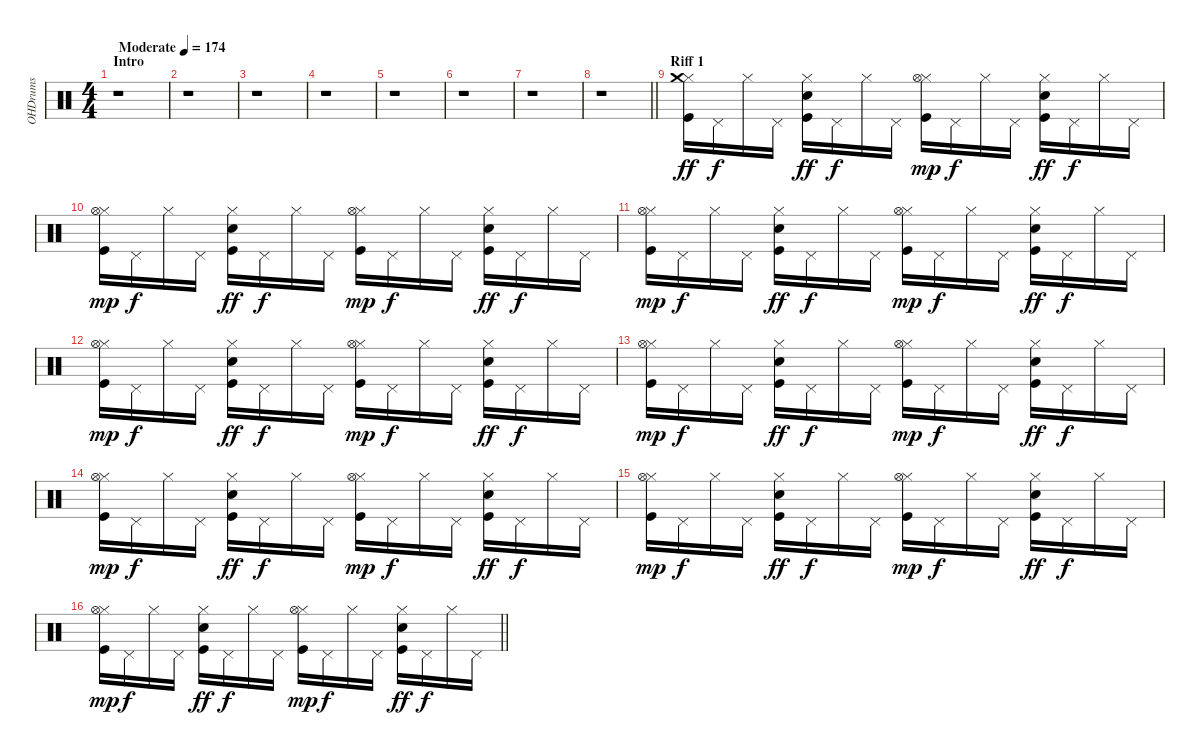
\track ("OHDrums" "OHDrums") {instrument percussion}
\staff {score}
\articulation defaults
\ts (4 4)
\section ("" "Intro")
\tempo (174 "Moderate")
\clef neutral
\ks c
r.1{dy ff} |
r.1 |
r.1 |
r.1 |
r.1 |
r.1 |
r.1 |
\barLineRight lightlight
r.1 |
\section ("" "Riff 1")
("Kick (hit)" "Hi-Hat (closed)" "Crash medium (hit)").16 "Pedal Hi-Hat (hit)".16{dy f} "Hi-Hat (closed)".16 "Pedal Hi-Hat (hit)".16 ("Kick (hit)" "Electric Snare (hit)" "Hi-Hat (closed)").16{dy ff} "Pedal Hi-Hat (hit)".16{dy f} "Hi-Hat (closed)".16 "Pedal Hi-Hat (hit)".16 ("Kick (hit)" "Hi-Hat (closed)" "Hi-Hat (open)").16{dy mp} "Pedal Hi-Hat (hit)".16{dy f} "Hi-Hat (closed)".16 "Pedal Hi-Hat (hit)".16 ("Kick (hit)" "Electric Snare (hit)" "Hi-Hat (closed)").16{dy ff} "Pedal Hi-Hat (hit)".16{dy f} "Hi-Hat (closed)".16 "Pedal Hi-Hat (hit)".16 |
("Kick (hit)" "Hi-Hat (closed)" "Hi-Hat (open)").16{dy mp} "Pedal Hi-Hat (hit)".16{dy f} "Hi-Hat (closed)".16 "Pedal Hi-Hat (hit)".16 ("Kick (hit)" "Electric Snare (hit)" "Hi-Hat (closed)").16{dy ff} "Pedal Hi-Hat (hit)".16{dy f} "Hi-Hat (closed)".16 "Pedal Hi-Hat (hit)".16 ("Kick (hit)" "Hi-Hat (closed)" "Hi-Hat (open)").16{dy mp} "Pedal Hi-Hat (hit)".16{dy f} "Hi-Hat (closed)".16 "Pedal Hi-Hat (hit)".16 ("Kick (hit)" "Electric Snare (hit)" "Hi-Hat (closed)").16{dy ff} "Pedal Hi-Hat (hit)".16{dy f} "Hi-Hat (closed)".16 "Pedal Hi-Hat (hit)".16 |
("Kick (hit)" "Hi-Hat (closed)" "Hi-Hat (open)").16{dy mp} "Pedal Hi-Hat (hit)".16{dy f} "Hi-Hat (closed)".16 "Pedal Hi-Hat (hit)".16 ("Kick (hit)" "Electric Snare (hit)" "Hi-Hat (closed)").16{dy ff} "Pedal Hi-Hat (hit)".16{dy f} "Hi-Hat (closed)".16 "Pedal Hi-Hat (hit)".16 ("Kick (hit)" "Hi-Hat (closed)" "Hi-Hat (open)").16{dy mp} "Pedal Hi-Hat (hit)".16{dy f} "Hi-Hat (closed)".16 "Pedal Hi-Hat (hit)".16 ("Kick (hit)" "Electric Snare (hit)" "Hi-Hat (closed)").16{dy ff} "Pedal Hi-Hat (hit)".16{dy f} "Hi-Hat (closed)".16 "Pedal Hi-Hat (hit)".16 |
("Kick (hit)" "Hi-Hat (closed)" "Hi-Hat (open)").16{dy mp} "Pedal Hi-Hat (hit)".16{dy f} "Hi-Hat (closed)".16 "Pedal Hi-Hat (hit)".16 ("Kick (hit)" "Electric Snare (hit)" "Hi-Hat (closed)").16{dy ff} "Pedal Hi-Hat (hit)".16{dy f} "Hi-Hat (closed)".16 "Pedal Hi-Hat (hit)".16 ("Kick (hit)" "Hi-Hat (closed)" "Hi-Hat (open)").16{dy mp} "Pedal Hi-Hat (hit)".16{dy f} "Hi-Hat (closed)".16 "Pedal Hi-Hat (hit)".16 ("Kick (hit)" "Electric Snare (hit)" "Hi-Hat (closed)").16{dy ff} "Pedal Hi-Hat (hit)".16{dy f} "Hi-Hat (closed)".16 "Pedal Hi-Hat (hit)".16 |
("Kick (hit)" "Hi-Hat (closed)" "Hi-Hat (open)").16{dy mp} "Pedal Hi-Hat (hit)".16{dy f} "Hi-Hat (closed)".16 "Pedal Hi-Hat (hit)".16 ("Kick (hit)" "Electric Snare (hit)" "Hi-Hat (closed)").16{dy ff} "Pedal Hi-Hat (hit)".16{dy f} "Hi-Hat (closed)".16 "Pedal Hi-Hat (hit)".16 ("Kick (hit)" "Hi-Hat (closed)" "Hi-Hat (open)").16{dy mp} "Pedal Hi-Hat (hit)".16{dy f} "Hi-Hat (closed)".16 "Pedal Hi-Hat (hit)".16 ("Kick (hit)" "Electric Snare (hit)" "Hi-Hat (closed)").16{dy ff} "Pedal Hi-Hat (hit)".16{dy f} "Hi-Hat (closed)".16 "Pedal Hi-Hat (hit)".16 |
("Kick (hit)" "Hi-Hat (closed)" "Hi-Hat (open)").16{dy mp} "Pedal Hi-Hat (hit)".16{dy f} "Hi-Hat (closed)".16 "Pedal Hi-Hat (hit)".16 ("Kick (hit)" "Electric Snare (hit)" "Hi-Hat (closed)").16{dy ff} "Pedal Hi-Hat (hit)".16{dy f} "Hi-Hat (closed)".16 "Pedal Hi-Hat (hit)".16 ("Kick (hit)" "Hi-Hat (closed)" "Hi-Hat (open)").16{dy mp} "Pedal Hi-Hat (hit)".16{dy f} "Hi-Hat (closed)".16 "Pedal Hi-Hat (hit)".16 ("Kick (hit)" "Electric Snare (hit)" "Hi-Hat (closed)").16{dy ff} "Pedal Hi-Hat (hit)".16{dy f} "Hi-Hat (closed)".16 "Pedal Hi-Hat (hit)".16 |
("Kick (hit)" "Hi-Hat (closed)" "Hi-Hat (open)").16{dy mp} "Pedal Hi-Hat (hit)".16{dy f} "Hi-Hat (closed)".16 "Pedal Hi-Hat (hit)".16 ("Kick (hit)" "Electric Snare (hit)" "Hi-Hat (closed)").16{dy ff} "Pedal Hi-Hat (hit)".16{dy f} "Hi-Hat (closed)".16 "Pedal Hi-Hat (hit)".16 ("Kick (hit)" "Hi-Hat (closed)" "Hi-Hat (open)").16{dy mp} "Pedal Hi-Hat (hit)".16{dy f} "Hi-Hat (closed)".16 "Pedal Hi-Hat (hit)".16 ("Kick (hit)" "Electric Snare (hit)" "Hi-Hat (closed)").16{dy ff} "Pedal Hi-Hat (hit)".16{dy f} "Hi-Hat (closed)".16 "Pedal Hi-Hat (hit)".16 |
\barLineRight lightlight
("Kick (hit)" "Hi-Hat (closed)" "Hi-Hat (open)").16{dy mp} "Pedal Hi-Hat (hit)".16{dy f} "Hi-Hat (closed)".16 "Pedal Hi-Hat (hit)".16 ("Kick (hit)" "Electric Snare (hit)" "Hi-Hat (closed)").16{dy ff} "Pedal Hi-Hat (hit)".16{dy f} "Hi-Hat (closed)".16 "Pedal Hi-Hat (hit)".16 ("Kick (hit)" "Hi-Hat (closed)" "Hi-Hat (open)").16{dy mp} "Pedal Hi-Hat (hit)".16{dy f} "Hi-Hat (closed)".16 "Pedal Hi-Hat (hit)".16 ("Kick (hit)" "Electric Snare (hit)" "Hi-Hat (closed)").16{dy ff} "Pedal Hi-Hat (hit)".16{dy f} "Hi-Hat (closed)".16 "Pedal Hi-Hat (hit)".16
